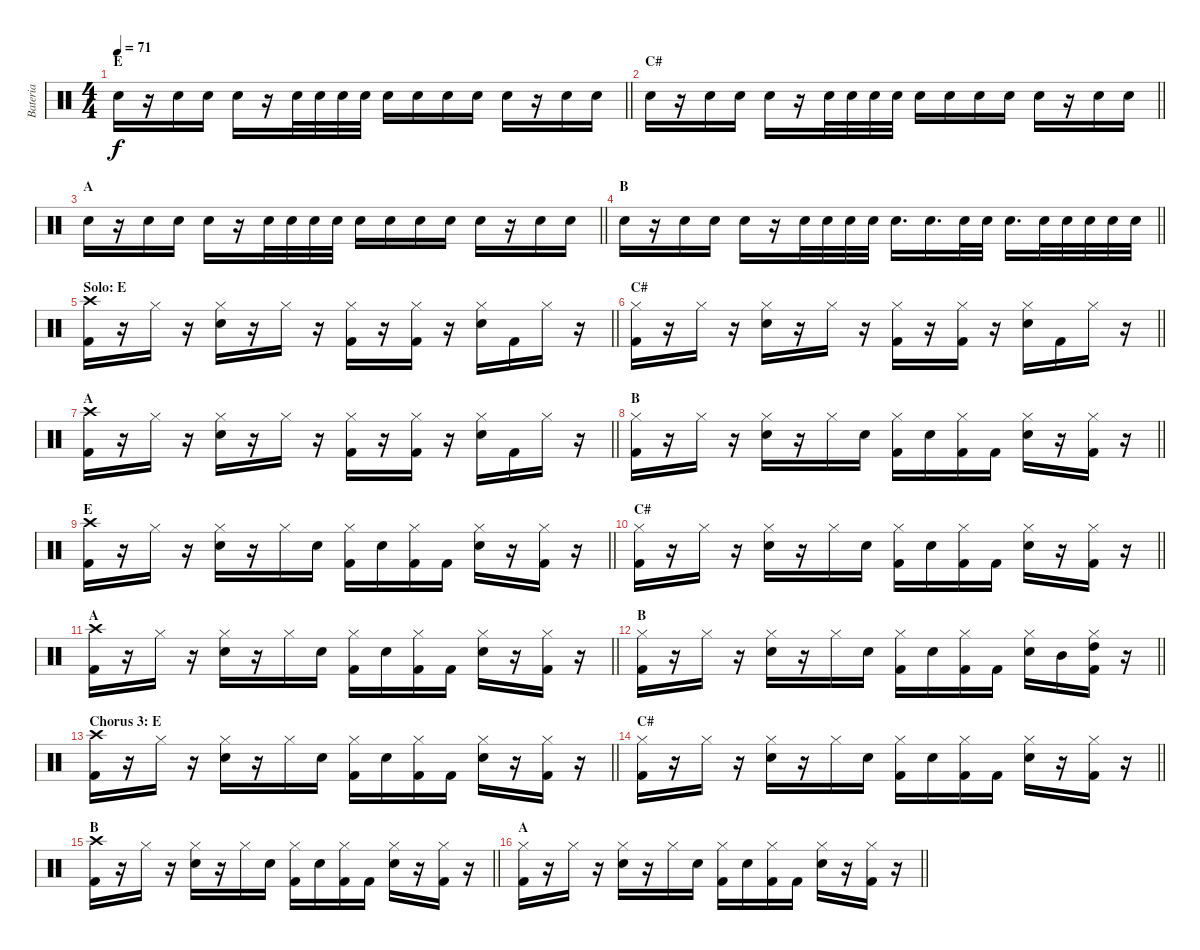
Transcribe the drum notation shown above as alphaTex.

\track ("Bateria" "Bateria") {instrument percussion}
\staff {score}
\articulation defaults
\ts (4 4)
\section ("" "E")
\tempo 71
\clef neutral
\barLineRight lightlight
\ks c "Electric Snare (hit)".16{dy f}
r.16 "Electric Snare (hit)".16 "Electric Snare (hit)".16 "Electric Snare (hit)".16 r.16 "Electric Snare (hit)".32 "Electric Snare (hit)".32 "Electric Snare (hit)".32 "Electric Snare (hit)".32 "Electric Snare (hit)".16 "Electric Snare (hit)".16 "Electric Snare (hit)".16 "Electric Snare (hit)".16 "Electric Snare (hit)".16 r.16 "Electric Snare (hit)".16 "Electric Snare (hit)".16 |
\section ("" "C#")
\barLineRight lightlight "Electric Snare (hit)".16
r.16 "Electric Snare (hit)".16 "Electric Snare (hit)".16 "Electric Snare (hit)".16 r.16 "Electric Snare (hit)".32 "Electric Snare (hit)".32 "Electric Snare (hit)".32 "Electric Snare (hit)".32 "Electric Snare (hit)".16 "Electric Snare (hit)".16 "Electric Snare (hit)".16 "Electric Snare (hit)".16 "Electric Snare (hit)".16 r.16 "Electric Snare (hit)".16 "Electric Snare (hit)".16 |
\section ("" "A")
\barLineRight lightlight "Electric Snare (hit)".16
r.16 "Electric Snare (hit)".16 "Electric Snare (hit)".16 "Electric Snare (hit)".16 r.16 "Electric Snare (hit)".32 "Electric Snare (hit)".32 "Electric Snare (hit)".32 "Electric Snare (hit)".32 "Electric Snare (hit)".16 "Electric Snare (hit)".16 "Electric Snare (hit)".16 "Electric Snare (hit)".16 "Electric Snare (hit)".16 r.16 "Electric Snare (hit)".16 "Electric Snare (hit)".16 |
\section ("" "B")
\barLineRight lightlight "Electric Snare (hit)".16
r.16 "Electric Snare (hit)".16 "Electric Snare (hit)".16 "Electric Snare (hit)".16 r.16 "Electric Snare (hit)".32 "Electric Snare (hit)".32 "Electric Snare (hit)".32 "Electric Snare (hit)".32 "Electric Snare (hit)".16{d} "Electric Snare (hit)".16{d} "Electric Snare (hit)".32 "Electric Snare (hit)".32 "Electric Snare (hit)".16{d} "Electric Snare (hit)".32 "Electric Snare (hit)".32 "Electric Snare (hit)".32 "Electric Snare (hit)".32 "Electric Snare (hit)".32 |
\section ("" "Solo: E")
\barLineRight lightlight
("Crash high (hit)" "Kick (hit) 2").16 r.16 "Hi-Hat (closed)".16 r.16 ("Hi-Hat (closed)" "Electric Snare (hit)").16 r.16 "Hi-Hat (closed)".16 r.16 ("Hi-Hat (closed)" "Kick (hit) 2").16 r.16 ("Hi-Hat (closed)" "Kick (hit) 2").16 r.16 ("Hi-Hat (closed)" "Electric Snare (hit)").16 "Kick (hit) 2".16 "Hi-Hat (closed)".16 r.16 |
\section ("" "C#")
\barLineRight lightlight
("Hi-Hat (closed)" "Kick (hit) 2").16 r.16 "Hi-Hat (closed)".16 r.16 ("Hi-Hat (closed)" "Electric Snare (hit)").16 r.16 "Hi-Hat (closed)".16 r.16 ("Hi-Hat (closed)" "Kick (hit) 2").16 r.16 ("Hi-Hat (closed)" "Kick (hit) 2").16 r.16 ("Hi-Hat (closed)" "Electric Snare (hit)").16 "Kick (hit) 2".16 "Hi-Hat (closed)".16 r.16 |
\section ("" "A")
\barLineRight lightlight
("Crash high (hit)" "Kick (hit) 2").16 r.16 "Hi-Hat (closed)".16 r.16 ("Hi-Hat (closed)" "Electric Snare (hit)").16 r.16 "Hi-Hat (closed)".16 r.16 ("Hi-Hat (closed)" "Kick (hit) 2").16 r.16 ("Hi-Hat (closed)" "Kick (hit) 2").16 r.16 ("Hi-Hat (closed)" "Electric Snare (hit)").16 "Kick (hit) 2".16 "Hi-Hat (closed)".16 r.16 |
\section ("" "B")
\barLineRight lightlight
("Hi-Hat (closed)" "Kick (hit) 2").16 r.16 "Hi-Hat (closed)".16 r.16 ("Hi-Hat (closed)" "Electric Snare (hit)").16 r.16 "Hi-Hat (closed)".16 "Electric Snare (hit)".16 ("Hi-Hat (closed)" "Kick (hit) 2").16 "Electric Snare (hit)".16 ("Hi-Hat (closed)" "Kick (hit) 2").16 "Kick (hit) 2".16 ("Hi-Hat (closed)" "Electric Snare (hit)").16 r.16 ("Hi-Hat (closed)" "Kick (hit) 2").16 r.16 |
\section ("" "E")
\barLineRight lightlight
("Crash high (hit)" "Kick (hit) 2").16 r.16 "Hi-Hat (closed)".16 r.16 ("Hi-Hat (closed)" "Electric Snare (hit)").16 r.16 "Hi-Hat (closed)".16 "Electric Snare (hit)".16 ("Hi-Hat (closed)" "Kick (hit) 2").16 "Electric Snare (hit)".16 ("Hi-Hat (closed)" "Kick (hit) 2").16 "Kick (hit) 2".16 ("Hi-Hat (closed)" "Electric Snare (hit)").16 r.16 ("Hi-Hat (closed)" "Kick (hit) 2").16 r.16 |
\section ("" "C#")
\barLineRight lightlight
("Hi-Hat (closed)" "Kick (hit) 2").16 r.16 "Hi-Hat (closed)".16 r.16 ("Hi-Hat (closed)" "Electric Snare (hit)").16 r.16 "Hi-Hat (closed)".16 "Electric Snare (hit)".16 ("Hi-Hat (closed)" "Kick (hit) 2").16 "Electric Snare (hit)".16 ("Hi-Hat (closed)" "Kick (hit) 2").16 "Kick (hit) 2".16 ("Hi-Hat (closed)" "Electric Snare (hit)").16 r.16 ("Hi-Hat (closed)" "Kick (hit) 2").16 r.16 |
\section ("" "A")
\barLineRight lightlight
("Crash high (hit)" "Kick (hit) 2").16 r.16 "Hi-Hat (closed)".16 r.16 ("Hi-Hat (closed)" "Electric Snare (hit)").16 r.16 "Hi-Hat (closed)".16 "Electric Snare (hit)".16 ("Hi-Hat (closed)" "Kick (hit) 2").16 "Electric Snare (hit)".16 ("Hi-Hat (closed)" "Kick (hit) 2").16 "Kick (hit) 2".16 ("Hi-Hat (closed)" "Electric Snare (hit)").16 r.16 ("Hi-Hat (closed)" "Kick (hit) 2").16 r.16 |
\section ("" "B")
\barLineRight lightlight
("Hi-Hat (closed)" "Kick (hit) 2").16 r.16 "Hi-Hat (closed)".16 r.16 ("Hi-Hat (closed)" "Electric Snare (hit)").16 r.16 "Hi-Hat (closed)".16 "Electric Snare (hit)".16 ("Hi-Hat (closed)" "Kick (hit) 2").16 "Electric Snare (hit)".16 ("Hi-Hat (closed)" "Kick (hit) 2").16 "Kick (hit) 2".16 ("Hi-Hat (closed)" "Electric Snare (hit)").16 "Mid Tom (hit)".16 ("Hi-Hat (closed)" "High Tom (hit)" "Kick (hit) 2").16 r.16 |
\section ("" "Chorus 3: E")
\barLineRight lightlight
("Crash high (hit)" "Kick (hit) 2").16 r.16 "Hi-Hat (closed)".16 r.16 ("Hi-Hat (closed)" "Electric Snare (hit)").16 r.16 "Hi-Hat (closed)".16 "Electric Snare (hit)".16 ("Hi-Hat (closed)" "Kick (hit) 2").16 "Electric Snare (hit)".16 ("Hi-Hat (closed)" "Kick (hit) 2").16 "Kick (hit) 2".16 ("Hi-Hat (closed)" "Electric Snare (hit)").16 r.16 ("Hi-Hat (closed)" "Kick (hit) 2").16 r.16 |
\section ("" "C#")
\barLineRight lightlight
("Hi-Hat (closed)" "Kick (hit) 2").16 r.16 "Hi-Hat (closed)".16 r.16 ("Hi-Hat (closed)" "Electric Snare (hit)").16 r.16 "Hi-Hat (closed)".16 "Electric Snare (hit)".16 ("Hi-Hat (closed)" "Kick (hit) 2").16 "Electric Snare (hit)".16 ("Hi-Hat (closed)" "Kick (hit) 2").16 "Kick (hit) 2".16 ("Hi-Hat (closed)" "Electric Snare (hit)").16 r.16 ("Hi-Hat (closed)" "Kick (hit) 2").16 r.16 |
\section ("" "B")
\barLineRight lightlight
("Crash high (hit)" "Kick (hit) 2").16 r.16 "Hi-Hat (closed)".16 r.16 ("Hi-Hat (closed)" "Electric Snare (hit)").16 r.16 "Hi-Hat (closed)".16 "Electric Snare (hit)".16 ("Hi-Hat (closed)" "Kick (hit) 2").16 "Electric Snare (hit)".16 ("Hi-Hat (closed)" "Kick (hit) 2").16 "Kick (hit) 2".16 ("Hi-Hat (closed)" "Electric Snare (hit)").16 r.16 ("Hi-Hat (closed)" "Kick (hit) 2").16 r.16 |
\section ("" "A")
\barLineRight lightlight
("Hi-Hat (closed)" "Kick (hit) 2").16 r.16 "Hi-Hat (closed)".16 r.16 ("Hi-Hat (closed)" "Electric Snare (hit)").16 r.16 "Hi-Hat (closed)".16 "Electric Snare (hit)".16 ("Hi-Hat (closed)" "Kick (hit) 2").16 "Electric Snare (hit)".16 ("Hi-Hat (closed)" "Kick (hit) 2").16 "Kick (hit) 2".16 ("Hi-Hat (closed)" "Electric Snare (hit)").16 r.16 ("Hi-Hat (closed)" "Kick (hit) 2").16 r.16
